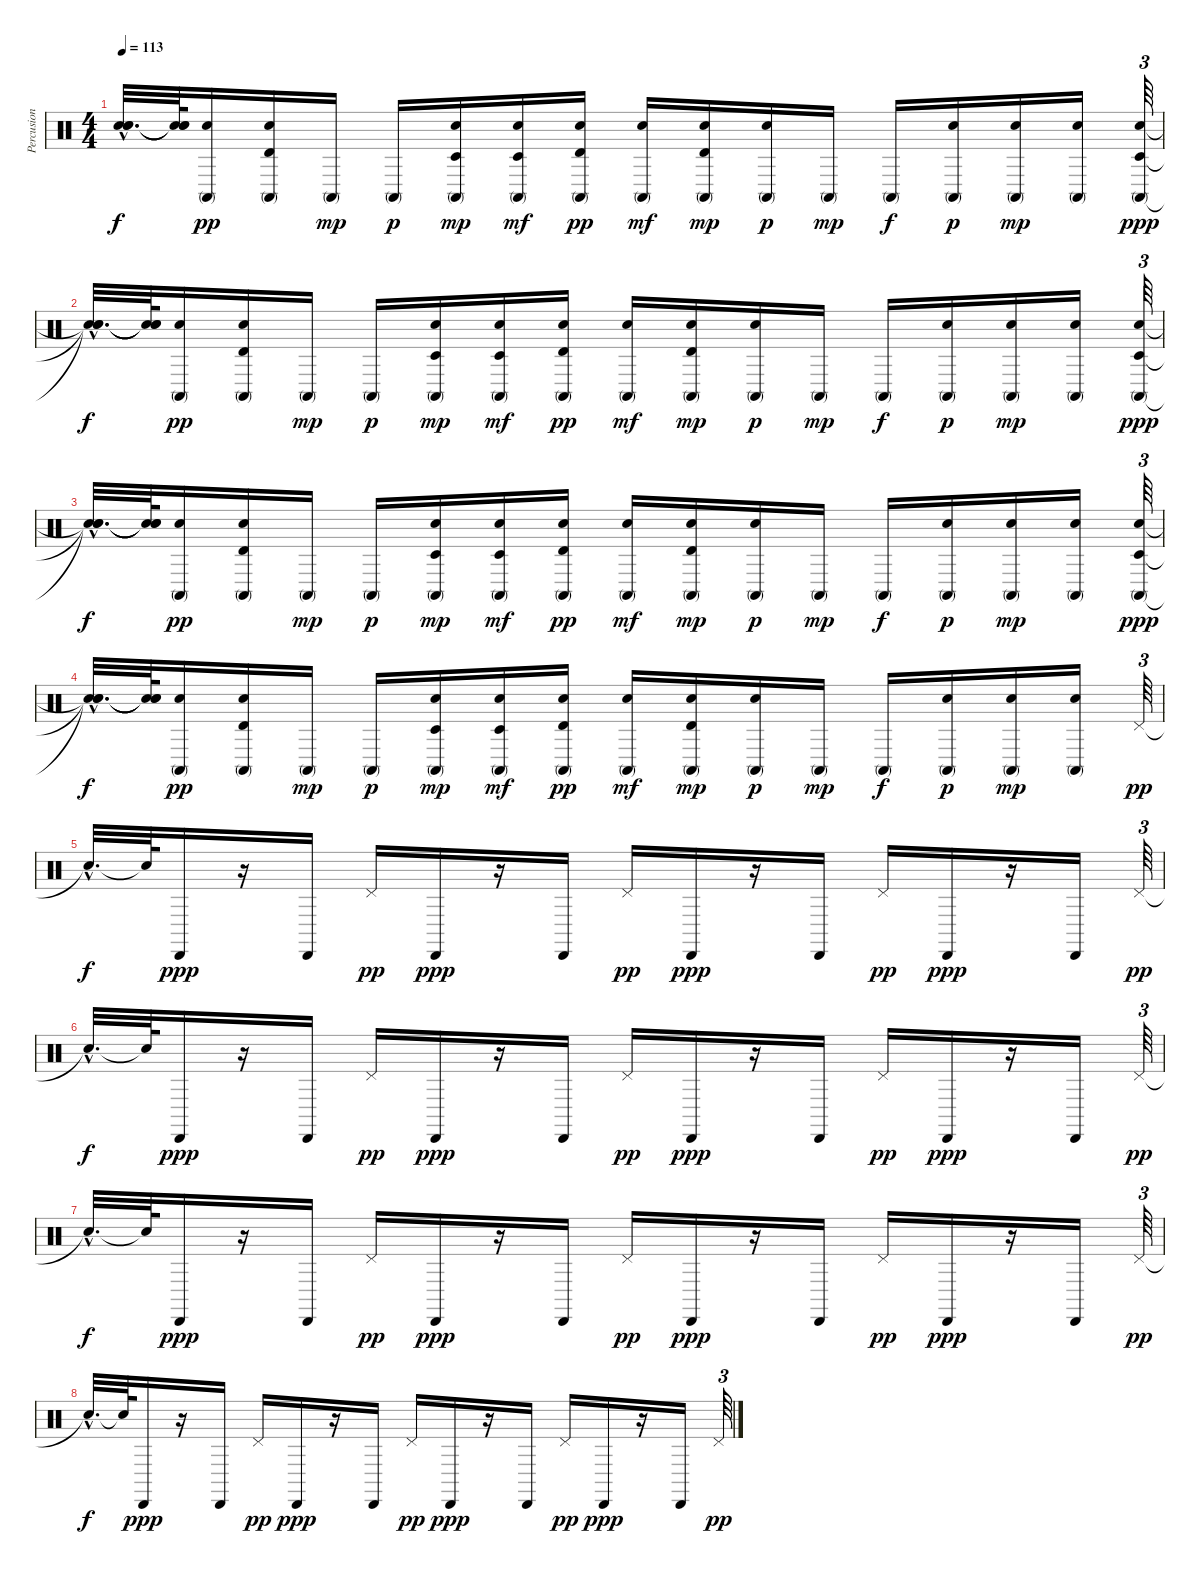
\track ("Percusion" "Percusion") {instrument percussion}
\staff {score}
\articulation defaults
\ts (4 4)
\tempo 113
\clef neutral
\ks c
("Snare (hit)"{hac t} "Snare (hit)"{hac t} "Snare (hit)"{hac t}).32{d dy f} ("Snare (hit)"{t} "Snare (hit)"{t} "Snare (hit)"{t}).64 ("Electric Snare (hit)" "Conga high (mute)").16{dy pp} ("Electric Snare (hit)" "Timbale high (hit)" "Conga high (mute)").16 "Conga high (mute)".16{dy mp} "Conga high (mute)".16{dy p} ("Electric Snare (hit)" "Timbale low (hit)" "Conga high (mute)").16{dy mp} ("Electric Snare (hit)" "Timbale low (hit)" "Conga high (mute)").16{dy mf} ("Electric Snare (hit)" "Timbale high (hit)" "Conga high (mute)").16{dy pp} ("Electric Snare (hit)" "Conga high (mute)").16{dy mf} ("Electric Snare (hit)" "Timbale high (hit)" "Conga high (mute)").16{dy mp} ("Electric Snare (hit)" "Conga high (mute)").16{dy p} "Conga high (mute)".16{dy mp} "Conga high (mute)".16{dy f} ("Electric Snare (hit)" "Conga high (mute)").16{dy p} ("Electric Snare (hit)" "Conga high (mute)").16{dy mp} ("Electric Snare (hit)" "Conga high (mute)").16 ("Electric Snare (hit)" "Timbale low (hit)" "Conga high (mute)").64{tu (3 2) dy ppp} |
("Snare (hit)"{hac t} "Snare (hit)"{hac t} "Snare (hit)"{hac t}).32{d dy f} ("Snare (hit)"{t} "Snare (hit)"{t} "Snare (hit)"{t}).64 ("Electric Snare (hit)" "Conga high (mute)").16{dy pp} ("Electric Snare (hit)" "Timbale high (hit)" "Conga high (mute)").16 "Conga high (mute)".16{dy mp} "Conga high (mute)".16{dy p} ("Electric Snare (hit)" "Timbale low (hit)" "Conga high (mute)").16{dy mp} ("Electric Snare (hit)" "Timbale low (hit)" "Conga high (mute)").16{dy mf} ("Electric Snare (hit)" "Timbale high (hit)" "Conga high (mute)").16{dy pp} ("Electric Snare (hit)" "Conga high (mute)").16{dy mf} ("Electric Snare (hit)" "Timbale high (hit)" "Conga high (mute)").16{dy mp} ("Electric Snare (hit)" "Conga high (mute)").16{dy p} "Conga high (mute)".16{dy mp} "Conga high (mute)".16{dy f} ("Electric Snare (hit)" "Conga high (mute)").16{dy p} ("Electric Snare (hit)" "Conga high (mute)").16{dy mp} ("Electric Snare (hit)" "Conga high (mute)").16 ("Electric Snare (hit)" "Timbale low (hit)" "Conga high (mute)").64{tu (3 2) dy ppp} |
("Snare (hit)"{hac t} "Snare (hit)"{hac t} "Snare (hit)"{hac t}).32{d dy f} ("Snare (hit)"{t} "Snare (hit)"{t} "Snare (hit)"{t}).64 ("Electric Snare (hit)" "Conga high (mute)").16{dy pp} ("Electric Snare (hit)" "Timbale high (hit)" "Conga high (mute)").16 "Conga high (mute)".16{dy mp} "Conga high (mute)".16{dy p} ("Electric Snare (hit)" "Timbale low (hit)" "Conga high (mute)").16{dy mp} ("Electric Snare (hit)" "Timbale low (hit)" "Conga high (mute)").16{dy mf} ("Electric Snare (hit)" "Timbale high (hit)" "Conga high (mute)").16{dy pp} ("Electric Snare (hit)" "Conga high (mute)").16{dy mf} ("Electric Snare (hit)" "Timbale high (hit)" "Conga high (mute)").16{dy mp} ("Electric Snare (hit)" "Conga high (mute)").16{dy p} "Conga high (mute)".16{dy mp} "Conga high (mute)".16{dy f} ("Electric Snare (hit)" "Conga high (mute)").16{dy p} ("Electric Snare (hit)" "Conga high (mute)").16{dy mp} ("Electric Snare (hit)" "Conga high (mute)").16 ("Electric Snare (hit)" "Timbale low (hit)" "Conga high (mute)").64{tu (3 2) dy ppp} |
("Snare (hit)"{hac t} "Snare (hit)"{hac t} "Snare (hit)"{hac t}).32{d dy f} ("Snare (hit)"{t} "Snare (hit)"{t} "Snare (hit)"{t}).64 ("Electric Snare (hit)" "Conga high (mute)").16{dy pp} ("Electric Snare (hit)" "Timbale high (hit)" "Conga high (mute)").16 "Conga high (mute)".16{dy mp} "Conga high (mute)".16{dy p} ("Electric Snare (hit)" "Timbale low (hit)" "Conga high (mute)").16{dy mp} ("Electric Snare (hit)" "Timbale low (hit)" "Conga high (mute)").16{dy mf} ("Electric Snare (hit)" "Timbale high (hit)" "Conga high (mute)").16{dy pp} ("Electric Snare (hit)" "Conga high (mute)").16{dy mf} ("Electric Snare (hit)" "Timbale high (hit)" "Conga high (mute)").16{dy mp} ("Electric Snare (hit)" "Conga high (mute)").16{dy p} "Conga high (mute)".16{dy mp} "Conga high (mute)".16{dy f} ("Electric Snare (hit)" "Conga high (mute)").16{dy p} ("Electric Snare (hit)" "Conga high (mute)").16{dy mp} ("Electric Snare (hit)" "Conga high (mute)").16 "Pedal Hi-Hat (hit)".64{tu (3 2) dy pp} |
"Snare (hit)"{hac t}.32{d dy f} "Snare (hit)"{t}.64 "Cabasa (hit)".16{dy ppp} r.16 "Cabasa (hit)".16 "Pedal Hi-Hat (hit)".16{dy pp} "Cabasa (hit)".16{dy ppp} r.16 "Cabasa (hit)".16 "Pedal Hi-Hat (hit)".16{dy pp} "Cabasa (hit)".16{dy ppp} r.16 "Cabasa (hit)".16 "Pedal Hi-Hat (hit)".16{dy pp} "Cabasa (hit)".16{dy ppp} r.16 "Cabasa (hit)".16 "Pedal Hi-Hat (hit)".64{tu (3 2) dy pp} |
"Snare (hit)"{hac t}.32{d dy f} "Snare (hit)"{t}.64 "Cabasa (hit)".16{dy ppp} r.16 "Cabasa (hit)".16 "Pedal Hi-Hat (hit)".16{dy pp} "Cabasa (hit)".16{dy ppp} r.16 "Cabasa (hit)".16 "Pedal Hi-Hat (hit)".16{dy pp} "Cabasa (hit)".16{dy ppp} r.16 "Cabasa (hit)".16 "Pedal Hi-Hat (hit)".16{dy pp} "Cabasa (hit)".16{dy ppp} r.16 "Cabasa (hit)".16 "Pedal Hi-Hat (hit)".64{tu (3 2) dy pp} |
"Snare (hit)"{hac t}.32{d dy f} "Snare (hit)"{t}.64 "Cabasa (hit)".16{dy ppp} r.16 "Cabasa (hit)".16 "Pedal Hi-Hat (hit)".16{dy pp} "Cabasa (hit)".16{dy ppp} r.16 "Cabasa (hit)".16 "Pedal Hi-Hat (hit)".16{dy pp} "Cabasa (hit)".16{dy ppp} r.16 "Cabasa (hit)".16 "Pedal Hi-Hat (hit)".16{dy pp} "Cabasa (hit)".16{dy ppp} r.16 "Cabasa (hit)".16 "Pedal Hi-Hat (hit)".64{tu (3 2) dy pp} |
"Snare (hit)"{hac t}.32{d dy f} "Snare (hit)"{t}.64 "Cabasa (hit)".16{dy ppp} r.16 "Cabasa (hit)".16 "Pedal Hi-Hat (hit)".16{dy pp} "Cabasa (hit)".16{dy ppp} r.16 "Cabasa (hit)".16 "Pedal Hi-Hat (hit)".16{dy pp} "Cabasa (hit)".16{dy ppp} r.16 "Cabasa (hit)".16 "Pedal Hi-Hat (hit)".16{dy pp} "Cabasa (hit)".16{dy ppp} r.16 "Cabasa (hit)".16 "Pedal Hi-Hat (hit)".64{tu (3 2) dy pp}
